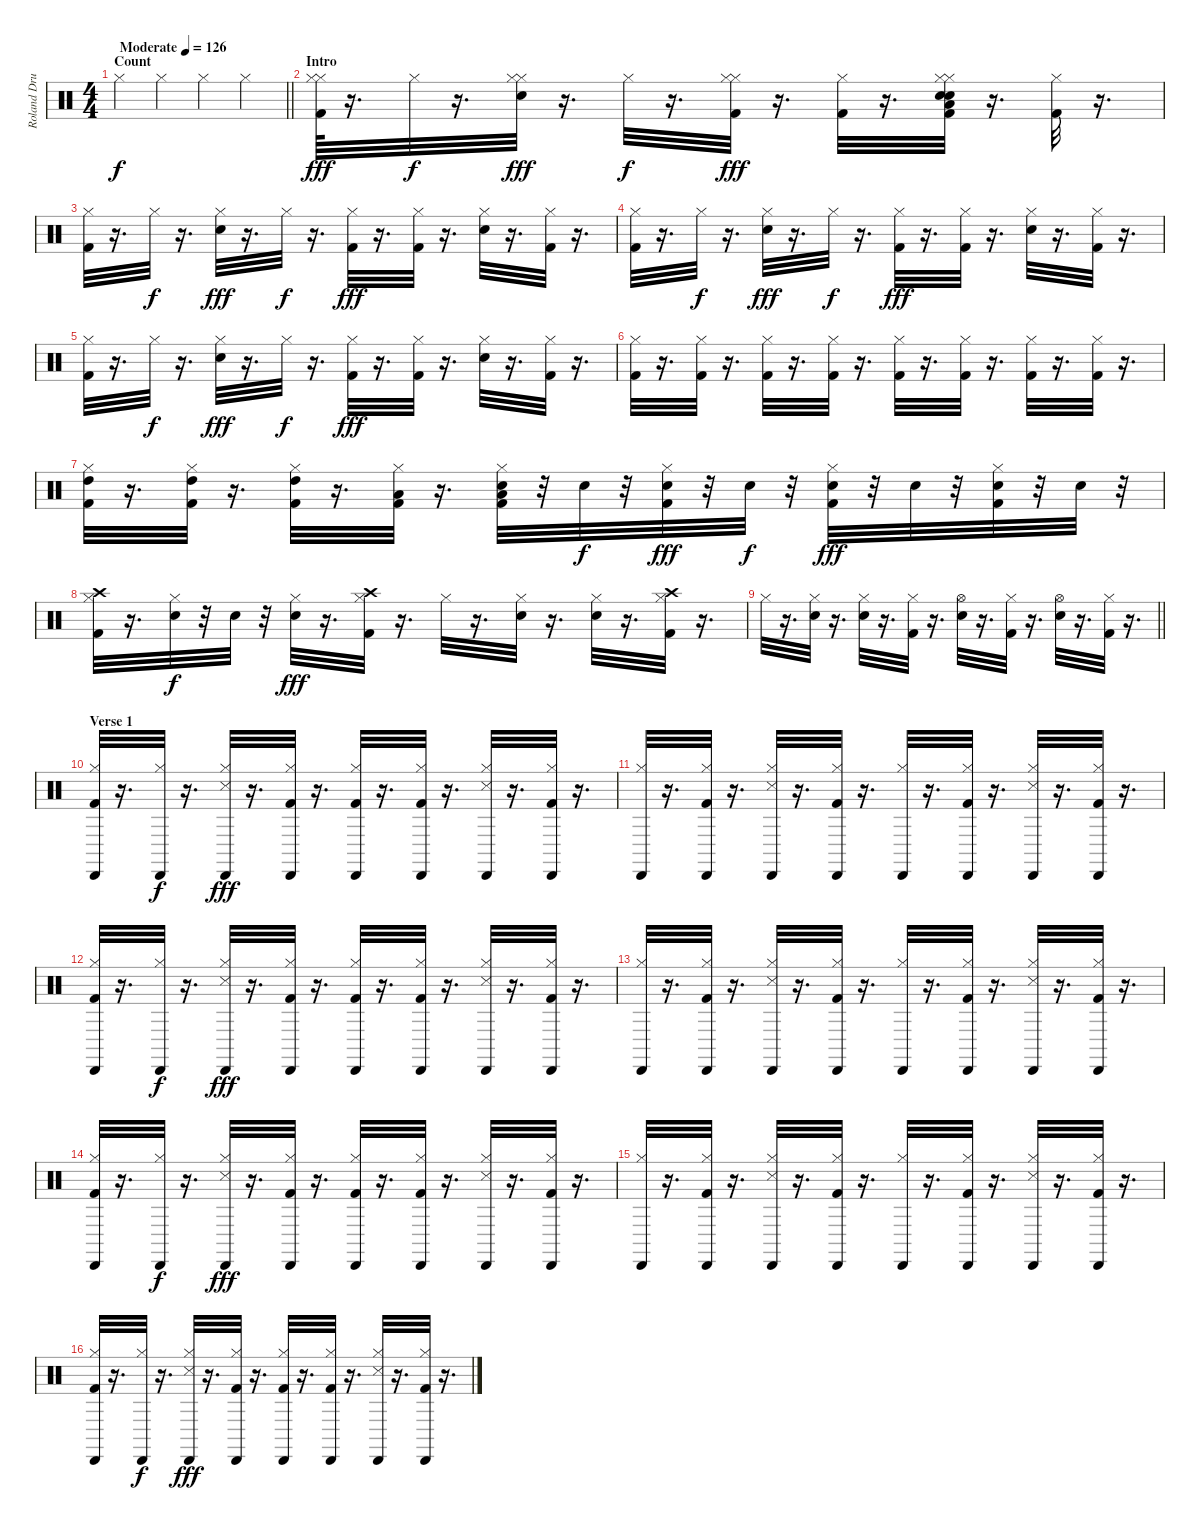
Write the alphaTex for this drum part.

\track ("Roland Drums" "Roland Dru") {instrument percussion}
\staff {score}
\articulation defaults
\ts (4 4)
\section ("" "Count")
\tempo (126 "Moderate")
\clef neutral
\barLineRight lightlight
\ks c "Hi-Hat (closed)".4{dy f} "Hi-Hat (closed)".4 "Hi-Hat (closed)".4 "Hi-Hat (closed)".4
|
\section ("" "Intro")
("Kick (hit) 2" "Hi-Hat (closed)" "Hi-Hat (closed)").64{dy fff} r.16{d} "Hi-Hat (closed)".32{dy f} r.16{d} ("Snare (hit) 2" "Hi-Hat (closed)" "Hi-Hat (closed)").32{dy fff} r.16{d} "Hi-Hat (closed)".32{dy f} r.16{d} ("Kick (hit) 2" "Hi-Hat (closed)" "Hi-Hat (closed)").32{dy fff} r.16{d} ("Kick (hit) 2" "Hi-Hat (closed)").32 r.16{d} ("Kick (hit) 2" "Snare (hit) 2" "Snare (hit) 2" "Hi-Hat (closed)" "Hi-Hat (closed)" "Low Floor Tom (hit)").32 r.16{d} ("Kick (hit) 2" "Hi-Hat (closed)").32 r.16{d} |
("Kick (hit) 2" "Hi-Hat (closed)").32 r.16{d} "Hi-Hat (closed)".32{dy f} r.16{d} ("Snare (hit) 2" "Hi-Hat (closed)").32{dy fff} r.16{d} "Hi-Hat (closed)".32{dy f} r.16{d} ("Kick (hit) 2" "Hi-Hat (closed)").32{dy fff} r.16{d} ("Kick (hit) 2" "Hi-Hat (closed)").32 r.16{d} ("Snare (hit) 2" "Hi-Hat (closed)").32 r.16{d} ("Kick (hit) 2" "Hi-Hat (closed)").32 r.16{d} |
("Kick (hit) 2" "Hi-Hat (closed)").32 r.16{d} "Hi-Hat (closed)".32{dy f} r.16{d} ("Snare (hit) 2" "Hi-Hat (closed)").32{dy fff} r.16{d} "Hi-Hat (closed)".32{dy f} r.16{d} ("Kick (hit) 2" "Hi-Hat (closed)").32{dy fff} r.16{d} ("Kick (hit) 2" "Hi-Hat (closed)").32 r.16{d} ("Snare (hit) 2" "Hi-Hat (closed)").32 r.16{d} ("Kick (hit) 2" "Hi-Hat (closed)").32 r.16{d} |
("Kick (hit) 2" "Hi-Hat (closed)").32 r.16{d} "Hi-Hat (closed)".32{dy f} r.16{d} ("Snare (hit) 2" "Hi-Hat (closed)").32{dy fff} r.16{d} "Hi-Hat (closed)".32{dy f} r.16{d} ("Kick (hit) 2" "Hi-Hat (closed)").32{dy fff} r.16{d} ("Kick (hit) 2" "Hi-Hat (closed)").32 r.16{d} ("Snare (hit) 2" "Hi-Hat (closed)").32 r.16{d} ("Kick (hit) 2" "Hi-Hat (closed)").32 r.16{d} |
("Kick (hit) 2" "Hi-Hat (closed)").32 r.16{d} ("Kick (hit) 2" "Hi-Hat (closed)").32 r.16{d} ("Kick (hit) 2" "Hi-Hat (closed)").32 r.16{d} ("Kick (hit) 2" "Hi-Hat (closed)").32 r.16{d} ("Kick (hit) 2" "Hi-Hat (closed)").32 r.16{d} ("Kick (hit) 2" "Hi-Hat (closed)").32 r.16{d} ("Kick (hit) 2" "Hi-Hat (closed)").32 r.16{d} ("Kick (hit) 2" "Hi-Hat (closed)").32 r.16{d} |
("Kick (hit) 2" "Hi-Hat (closed)" "High Tom (hit)").32 r.16{d} ("Kick (hit) 2" "Hi-Hat (closed)" "High Tom (hit)").32 r.16{d} ("Kick (hit) 2" "Hi-Hat (closed)" "High Tom (hit)").32 r.16{d} ("Kick (hit) 2" "Hi-Hat (closed)" "Low Tom (hit)").32 r.16{d} ("Kick (hit) 2" "Snare (hit) 2" "Hi-Hat (closed)" "Low Floor Tom (hit)").32 r.32 "Snare (hit) 2".32{dy f} r.32 ("Kick (hit) 2" "Snare (hit) 2" "Hi-Hat (closed)").32{dy fff} r.32 "Snare (hit) 2".32{dy f} r.32 ("Kick (hit) 2" "Snare (hit) 2" "Hi-Hat (closed)").32{dy fff} r.32 "Snare (hit) 2".32 r.32 ("Kick (hit) 2" "Snare (hit) 2" "Hi-Hat (closed)").32 r.32 "Snare (hit) 2".32 r.32 |
("Kick (hit) 2" "Hi-Hat (closed)" "Crash high (hit)").32 r.16{d} ("Snare (hit) 2" "Hi-Hat (closed)").32{dy f} r.32 "Snare (hit) 2".32 r.32 ("Snare (hit) 2" "Hi-Hat (closed)").32{dy fff} r.16{d} ("Kick (hit) 2" "Hi-Hat (closed)" "Crash high (hit)").32 r.16{d} "Hi-Hat (closed)".32 r.16{d} ("Snare (hit) 2" "Hi-Hat (closed)").32 r.16{d} ("Snare (hit) 2" "Hi-Hat (closed)").32 r.16{d} ("Kick (hit) 2" "Hi-Hat (closed)" "Crash high (hit)").32 r.16{d} |
\barLineRight lightlight "Hi-Hat (closed)".32
r.16{d} ("Snare (hit) 2" "Hi-Hat (closed)").32 r.16{d} ("Snare (hit) 2" "Hi-Hat (closed)").32 r.16{d} ("Kick (hit) 2" "Hi-Hat (closed)").32 r.16{d} ("Snare (hit) 2" "Hi-Hat (open)").32 r.16{d} ("Kick (hit) 2" "Hi-Hat (closed)").32 r.16{d} ("Snare (hit) 2" "Hi-Hat (open)").32 r.16{d} ("Kick (hit) 2" "Hi-Hat (closed)").32 r.16{d} |
\section ("" "Verse 1")
("Kick (hit) 2" "Hi-Hat (closed)" "Cabasa (hit)").32 r.16{d} ("Hi-Hat (closed)" "Cabasa (hit)").32{dy f} r.16{d} ("Hi-Hat (closed)" "Snare (side stick) 3" "Cabasa (hit)").32{dy fff} r.16{d} ("Kick (hit) 2" "Hi-Hat (closed)" "Cabasa (hit)").32 r.16{d} ("Kick (hit) 2" "Hi-Hat (closed)" "Cabasa (hit)").32 r.16{d} ("Kick (hit) 2" "Hi-Hat (closed)" "Cabasa (hit)").32 r.16{d} ("Hi-Hat (closed)" "Snare (side stick) 3" "Cabasa (hit)").32 r.16{d} ("Kick (hit) 2" "Hi-Hat (closed)" "Cabasa (hit)").32 r.16{d} |
("Hi-Hat (closed)" "Cabasa (hit)").32 r.16{d} ("Kick (hit) 2" "Hi-Hat (closed)" "Cabasa (hit)").32 r.16{d} ("Hi-Hat (closed)" "Snare (side stick) 3" "Cabasa (hit)").32 r.16{d} ("Kick (hit) 2" "Hi-Hat (closed)" "Cabasa (hit)").32 r.16{d} ("Hi-Hat (closed)" "Cabasa (hit)").32 r.16{d} ("Kick (hit) 2" "Hi-Hat (closed)" "Cabasa (hit)").32 r.16{d} ("Hi-Hat (closed)" "Snare (side stick) 3" "Cabasa (hit)").32 r.16{d} ("Kick (hit) 2" "Hi-Hat (closed)" "Cabasa (hit)").32 r.16{d} |
("Kick (hit) 2" "Hi-Hat (closed)" "Cabasa (hit)").32 r.16{d} ("Hi-Hat (closed)" "Cabasa (hit)").32{dy f} r.16{d} ("Hi-Hat (closed)" "Snare (side stick) 3" "Cabasa (hit)").32{dy fff} r.16{d} ("Kick (hit) 2" "Hi-Hat (closed)" "Cabasa (hit)").32 r.16{d} ("Kick (hit) 2" "Hi-Hat (closed)" "Cabasa (hit)").32 r.16{d} ("Kick (hit) 2" "Hi-Hat (closed)" "Cabasa (hit)").32 r.16{d} ("Hi-Hat (closed)" "Snare (side stick) 3" "Cabasa (hit)").32 r.16{d} ("Kick (hit) 2" "Hi-Hat (closed)" "Cabasa (hit)").32 r.16{d} |
("Hi-Hat (closed)" "Cabasa (hit)").32 r.16{d} ("Kick (hit) 2" "Hi-Hat (closed)" "Cabasa (hit)").32 r.16{d} ("Hi-Hat (closed)" "Snare (side stick) 3" "Cabasa (hit)").32 r.16{d} ("Kick (hit) 2" "Hi-Hat (closed)" "Cabasa (hit)").32 r.16{d} ("Hi-Hat (closed)" "Cabasa (hit)").32 r.16{d} ("Kick (hit) 2" "Hi-Hat (closed)" "Cabasa (hit)").32 r.16{d} ("Hi-Hat (closed)" "Snare (side stick) 3" "Cabasa (hit)").32 r.16{d} ("Kick (hit) 2" "Hi-Hat (closed)" "Cabasa (hit)").32 r.16{d} |
("Kick (hit) 2" "Hi-Hat (closed)" "Cabasa (hit)").32 r.16{d} ("Hi-Hat (closed)" "Cabasa (hit)").32{dy f} r.16{d} ("Hi-Hat (closed)" "Snare (side stick) 3" "Cabasa (hit)").32{dy fff} r.16{d} ("Kick (hit) 2" "Hi-Hat (closed)" "Cabasa (hit)").32 r.16{d} ("Kick (hit) 2" "Hi-Hat (closed)" "Cabasa (hit)").32 r.16{d} ("Kick (hit) 2" "Hi-Hat (closed)" "Cabasa (hit)").32 r.16{d} ("Hi-Hat (closed)" "Snare (side stick) 3" "Cabasa (hit)").32 r.16{d} ("Kick (hit) 2" "Hi-Hat (closed)" "Cabasa (hit)").32 r.16{d} |
("Hi-Hat (closed)" "Cabasa (hit)").32 r.16{d} ("Kick (hit) 2" "Hi-Hat (closed)" "Cabasa (hit)").32 r.16{d} ("Hi-Hat (closed)" "Snare (side stick) 3" "Cabasa (hit)").32 r.16{d} ("Kick (hit) 2" "Hi-Hat (closed)" "Cabasa (hit)").32 r.16{d} ("Hi-Hat (closed)" "Cabasa (hit)").32 r.16{d} ("Kick (hit) 2" "Hi-Hat (closed)" "Cabasa (hit)").32 r.16{d} ("Hi-Hat (closed)" "Snare (side stick) 3" "Cabasa (hit)").32 r.16{d} ("Kick (hit) 2" "Hi-Hat (closed)" "Cabasa (hit)").32 r.16{d} |
("Kick (hit) 2" "Hi-Hat (closed)" "Cabasa (hit)").32 r.16{d} ("Hi-Hat (closed)" "Cabasa (hit)").32{dy f} r.16{d} ("Hi-Hat (closed)" "Snare (side stick) 3" "Cabasa (hit)").32{dy fff} r.16{d} ("Kick (hit) 2" "Hi-Hat (closed)" "Cabasa (hit)").32 r.16{d} ("Kick (hit) 2" "Hi-Hat (closed)" "Cabasa (hit)").32 r.16{d} ("Kick (hit) 2" "Hi-Hat (closed)" "Cabasa (hit)").32 r.16{d} ("Hi-Hat (closed)" "Snare (side stick) 3" "Cabasa (hit)").32 r.16{d} ("Kick (hit) 2" "Hi-Hat (closed)" "Cabasa (hit)").32 r.16{d}
